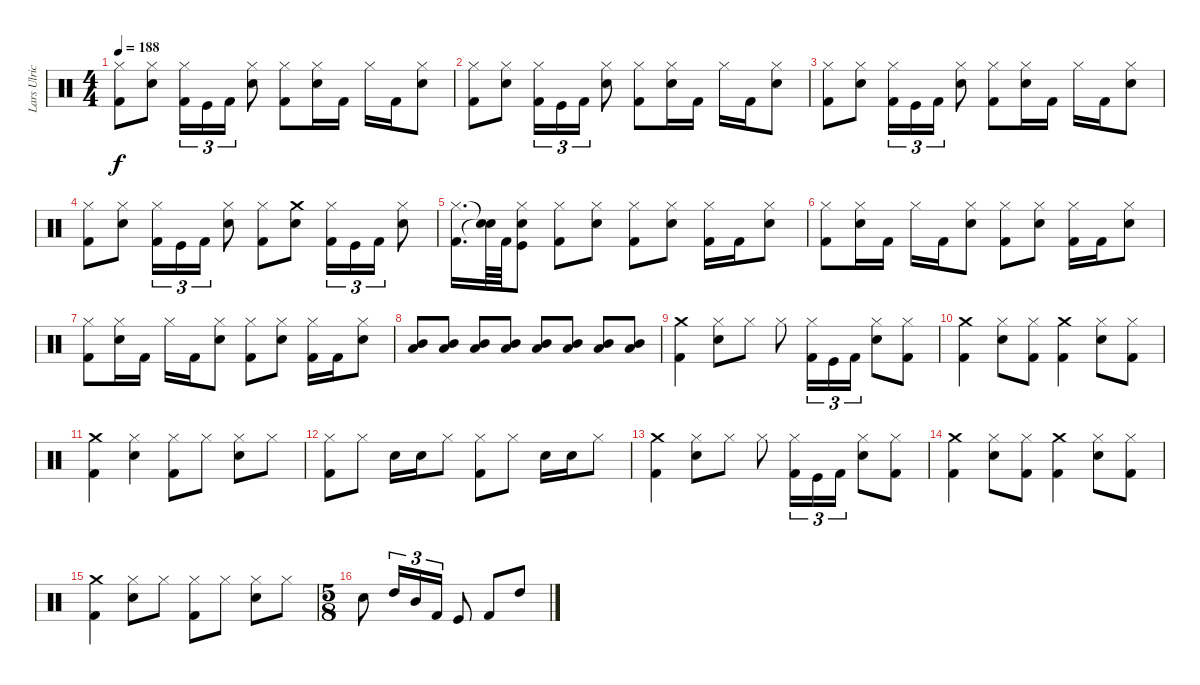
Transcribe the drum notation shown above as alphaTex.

\track ("Lars Ulrich (Drums)" "Lars Ulric") {instrument percussion}
\staff {score}
\articulation defaults
\ts (4 4)
\tempo 188
\clef neutral
\ks c
("Kick (hit) 2" "Hi-Hat (closed)").8{dy f} ("Snare (hit) 2" "Hi-Hat (closed)").8 ("Kick (hit) 2" "Hi-Hat (closed)").16{tu (3 2)} "Kick (hit)".16{tu (3 2)} "Kick (hit) 2".16{tu (3 2)} ("Snare (hit) 2" "Hi-Hat (closed)").8 ("Kick (hit) 2" "Hi-Hat (closed)").8 ("Snare (hit) 2" "Hi-Hat (closed)").16 "Kick (hit) 2".16 "Hi-Hat (closed)".16 "Kick (hit) 2".16 ("Snare (hit) 2" "Hi-Hat (closed)").8 |
("Kick (hit) 2" "Hi-Hat (closed)").8 ("Snare (hit) 2" "Hi-Hat (closed)").8 ("Kick (hit) 2" "Hi-Hat (closed)").16{tu (3 2)} "Kick (hit)".16{tu (3 2)} "Kick (hit) 2".16{tu (3 2)} ("Snare (hit) 2" "Hi-Hat (closed)").8 ("Kick (hit) 2" "Hi-Hat (closed)").8 ("Snare (hit) 2" "Hi-Hat (closed)").16 "Kick (hit) 2".16 "Hi-Hat (closed)".16 "Kick (hit) 2".16 ("Snare (hit) 2" "Hi-Hat (closed)").8 |
("Kick (hit) 2" "Hi-Hat (closed)").8 ("Snare (hit) 2" "Hi-Hat (closed)").8 ("Kick (hit) 2" "Hi-Hat (closed)").16{tu (3 2)} "Kick (hit)".16{tu (3 2)} "Kick (hit) 2".16{tu (3 2)} ("Snare (hit) 2" "Hi-Hat (closed)").8 ("Kick (hit) 2" "Hi-Hat (closed)").8 ("Snare (hit) 2" "Hi-Hat (closed)").16 "Kick (hit) 2".16 "Hi-Hat (closed)".16 "Kick (hit) 2".16 ("Snare (hit) 2" "Hi-Hat (closed)").8 |
("Kick (hit) 2" "Hi-Hat (closed)").8 ("Snare (hit) 2" "Hi-Hat (closed)").8 ("Kick (hit) 2" "Hi-Hat (closed)").16{tu (3 2)} "Kick (hit)".16{tu (3 2)} "Kick (hit) 2".16{tu (3 2)} ("Snare (hit) 2" "Hi-Hat (closed)").8 ("Kick (hit) 2" "Hi-Hat (closed)").8 ("Crash medium (hit)" "Snare (hit) 2").8 ("Kick (hit) 2" "Hi-Hat (closed)").16{tu (3 2)} "Kick (hit)".16{tu (3 2)} "Kick (hit) 2".16{tu (3 2)} ("Snare (hit) 2" "Hi-Hat (closed)").8 |
("Kick (hit) 2" "Hi-Hat (closed)").16{d} ("Snare (hit)"{t} "Snare (hit)"{t}).64 "Kick (hit) 2".64 ("Kick (hit)" "Snare (hit) 2" "Hi-Hat (closed)").8 ("Kick (hit) 2" "Hi-Hat (closed)").8 ("Snare (hit) 2" "Hi-Hat (closed)").8 ("Kick (hit) 2" "Hi-Hat (closed)").8 ("Snare (hit) 2" "Hi-Hat (closed)").8 ("Kick (hit) 2" "Hi-Hat (closed)").16 "Kick (hit) 2".16 ("Snare (hit) 2" "Hi-Hat (closed)").8 |
("Hi-Hat (closed)" "Kick (hit) 2").8 ("Snare (hit) 2" "Hi-Hat (closed)").16 "Kick (hit) 2".16 "Hi-Hat (closed)".16 "Kick (hit) 2".16 ("Snare (hit) 2" "Hi-Hat (closed)").8 ("Hi-Hat (closed)" "Kick (hit) 2").8 ("Snare (hit) 2" "Hi-Hat (closed)").8 ("Hi-Hat (closed)" "Kick (hit) 2").16 "Kick (hit) 2".16 ("Snare (hit) 2" "Hi-Hat (closed)").8 |
("Hi-Hat (closed)" "Kick (hit) 2").8 ("Snare (hit) 2" "Hi-Hat (closed)").16 "Kick (hit) 2".16 "Hi-Hat (closed)".16 "Kick (hit) 2".16 ("Snare (hit) 2" "Hi-Hat (closed)").8 ("Hi-Hat (closed)" "Kick (hit) 2").8 ("Snare (hit) 2" "Hi-Hat (closed)").8 ("Hi-Hat (closed)" "Kick (hit) 2").16 "Kick (hit) 2".16 ("Snare (hit) 2" "Hi-Hat (closed)").8 |
("Mid Tom (hit)" "Low Tom (hit)").8 ("Mid Tom (hit)" "Low Tom (hit)").8 ("Mid Tom (hit)" "Low Tom (hit)").8 ("Mid Tom (hit)" "Low Tom (hit)").8 ("Mid Tom (hit)" "Low Tom (hit)").8 ("Mid Tom (hit)" "Low Tom (hit)").8 ("Mid Tom (hit)" "Low Tom (hit)").8 ("Mid Tom (hit)" "Low Tom (hit)").8 |
("Kick (hit) 2" "Crash medium (hit)").4 ("Snare (hit) 2" "Hi-Hat (closed)").8 "Hi-Hat (closed)".8 "Hi-Hat (closed)".8 ("Kick (hit) 2" "Hi-Hat (closed)").16{tu (3 2)} "Kick (hit)".16{tu (3 2)} "Kick (hit) 2".16{tu (3 2)} ("Snare (hit) 2" "Hi-Hat (closed)").8 ("Kick (hit) 2" "Hi-Hat (closed)").8 |
("Kick (hit) 2" "Crash medium (hit)").4 ("Hi-Hat (closed)" "Snare (hit) 2").8 ("Kick (hit) 2" "Hi-Hat (closed)").8 ("Crash medium (hit)" "Kick (hit) 2").4 ("Hi-Hat (closed)" "Snare (hit) 2").8 ("Kick (hit) 2" "Hi-Hat (closed)").8 |
("Kick (hit) 2" "Crash medium (hit)").4 ("Hi-Hat (closed)" "Snare (hit) 2").4 ("Hi-Hat (closed)" "Kick (hit) 2").8 "Hi-Hat (closed)".8 ("Snare (hit) 2" "Hi-Hat (closed)").8 "Hi-Hat (closed)".8 |
("Kick (hit) 2" "Hi-Hat (closed)").8 "Hi-Hat (closed)".8 "Snare (hit) 2".16 "Snare (hit) 2".16 "Hi-Hat (closed)".8 ("Kick (hit) 2" "Hi-Hat (closed)").8 "Hi-Hat (closed)".8 "Snare (hit) 2".16 "Snare (hit) 2".16 "Hi-Hat (closed)".8 |
("Kick (hit) 2" "Crash medium (hit)").4 ("Snare (hit) 2" "Hi-Hat (closed)").8 "Hi-Hat (closed)".8 "Hi-Hat (closed)".8 ("Kick (hit) 2" "Hi-Hat (closed)").16{tu (3 2)} "Kick (hit)".16{tu (3 2)} "Kick (hit) 2".16{tu (3 2)} ("Snare (hit) 2" "Hi-Hat (closed)").8 ("Kick (hit) 2" "Hi-Hat (closed)").8 |
("Kick (hit) 2" "Crash medium (hit)").4 ("Hi-Hat (closed)" "Snare (hit) 2").8 ("Kick (hit) 2" "Hi-Hat (closed)").8 ("Crash medium (hit)" "Kick (hit) 2").4 ("Hi-Hat (closed)" "Snare (hit) 2").8 ("Kick (hit) 2" "Hi-Hat (closed)").8 |
("Kick (hit) 2" "Crash medium (hit)").4 ("Hi-Hat (closed)" "Snare (hit) 2").8 "Hi-Hat (closed)".8 ("Hi-Hat (closed)" "Kick (hit) 2").8 "Hi-Hat (closed)".8 ("Snare (hit) 2" "Hi-Hat (closed)").8 "Hi-Hat (closed)".8 |
\ts (5 8)
"Snare (hit) 2".8 "High Tom (hit)".16{tu (3 2)} "Mid Tom (hit)".16{tu (3 2)} "Kick (hit) 2".16{tu (3 2)} "Kick (hit)".8 "Kick (hit) 2".8 "High Tom (hit)".8
